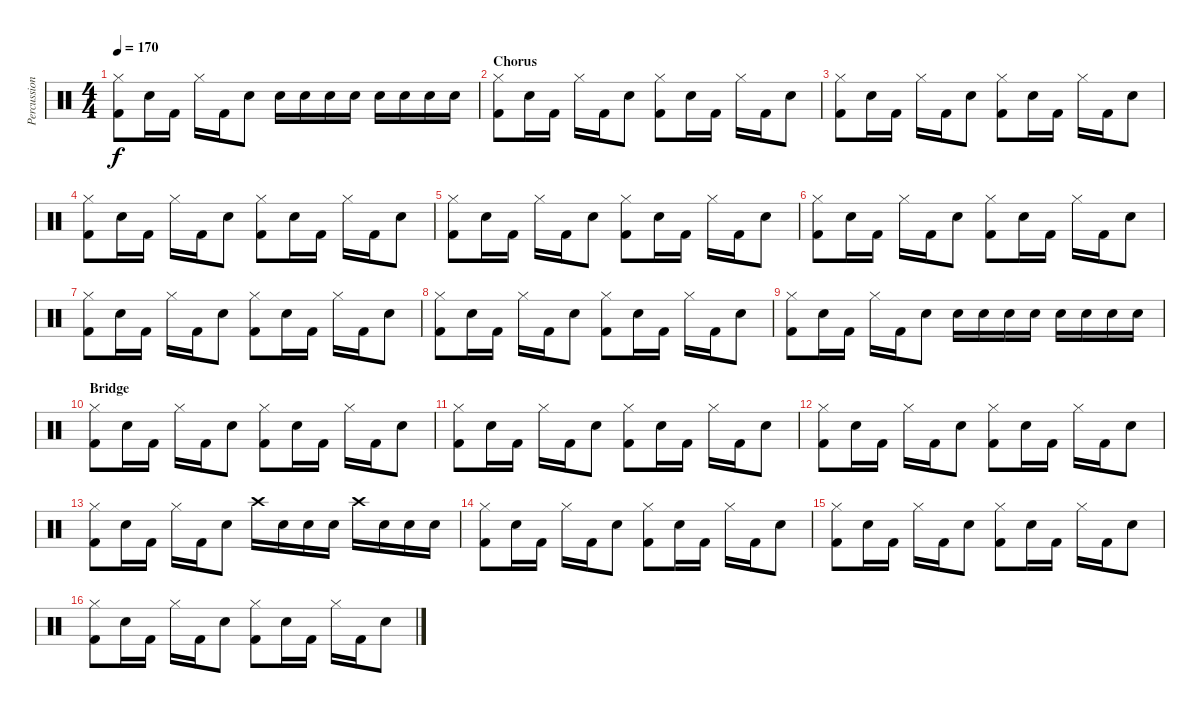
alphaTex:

\track ("Percussions" "Percussion") {instrument percussion}
\staff {score}
\articulation defaults
\ts (4 4)
\tempo 170
\clef neutral
\ks c
("Hi-Hat (closed)" "Kick (hit) 2").8{dy f} "Snare (hit) 2".16 "Kick (hit) 2".16 "Hi-Hat (closed)".16 "Kick (hit) 2".16 "Snare (hit) 2".8 "Snare (hit) 2".16 "Snare (hit) 2".16 "Snare (hit) 2".16 "Snare (hit) 2".16 "Snare (hit) 2".16 "Snare (hit) 2".16 "Snare (hit) 2".16 "Snare (hit) 2".16 |
\section ("" "Chorus")
("Hi-Hat (closed)" "Kick (hit) 2").8 "Snare (hit) 2".16 "Kick (hit) 2".16 "Hi-Hat (closed)".16 "Kick (hit) 2".16 "Snare (hit) 2".8 ("Hi-Hat (closed)" "Kick (hit) 2").8 "Snare (hit) 2".16 "Kick (hit) 2".16 "Hi-Hat (closed)".16 "Kick (hit) 2".16 "Snare (hit) 2".8 |
("Hi-Hat (closed)" "Kick (hit) 2").8 "Snare (hit) 2".16 "Kick (hit) 2".16 "Hi-Hat (closed)".16 "Kick (hit) 2".16 "Snare (hit) 2".8 ("Hi-Hat (closed)" "Kick (hit) 2").8 "Snare (hit) 2".16 "Kick (hit) 2".16 "Hi-Hat (closed)".16 "Kick (hit) 2".16 "Snare (hit) 2".8 |
("Hi-Hat (closed)" "Kick (hit) 2").8 "Snare (hit) 2".16 "Kick (hit) 2".16 "Hi-Hat (closed)".16 "Kick (hit) 2".16 "Snare (hit) 2".8 ("Hi-Hat (closed)" "Kick (hit) 2").8 "Snare (hit) 2".16 "Kick (hit) 2".16 "Hi-Hat (closed)".16 "Kick (hit) 2".16 "Snare (hit) 2".8 |
("Hi-Hat (closed)" "Kick (hit) 2").8 "Snare (hit) 2".16 "Kick (hit) 2".16 "Hi-Hat (closed)".16 "Kick (hit) 2".16 "Snare (hit) 2".8 ("Hi-Hat (closed)" "Kick (hit) 2").8 "Snare (hit) 2".16 "Kick (hit) 2".16 "Hi-Hat (closed)".16 "Kick (hit) 2".16 "Snare (hit) 2".8 |
("Hi-Hat (closed)" "Kick (hit) 2").8 "Snare (hit) 2".16 "Kick (hit) 2".16 "Hi-Hat (closed)".16 "Kick (hit) 2".16 "Snare (hit) 2".8 ("Hi-Hat (closed)" "Kick (hit) 2").8 "Snare (hit) 2".16 "Kick (hit) 2".16 "Hi-Hat (closed)".16 "Kick (hit) 2".16 "Snare (hit) 2".8 |
("Hi-Hat (closed)" "Kick (hit) 2").8 "Snare (hit) 2".16 "Kick (hit) 2".16 "Hi-Hat (closed)".16 "Kick (hit) 2".16 "Snare (hit) 2".8 ("Hi-Hat (closed)" "Kick (hit) 2").8 "Snare (hit) 2".16 "Kick (hit) 2".16 "Hi-Hat (closed)".16 "Kick (hit) 2".16 "Snare (hit) 2".8 |
("Hi-Hat (closed)" "Kick (hit) 2").8 "Snare (hit) 2".16 "Kick (hit) 2".16 "Hi-Hat (closed)".16 "Kick (hit) 2".16 "Snare (hit) 2".8 ("Hi-Hat (closed)" "Kick (hit) 2").8 "Snare (hit) 2".16 "Kick (hit) 2".16 "Hi-Hat (closed)".16 "Kick (hit) 2".16 "Snare (hit) 2".8 |
("Hi-Hat (closed)" "Kick (hit) 2").8 "Snare (hit) 2".16 "Kick (hit) 2".16 "Hi-Hat (closed)".16 "Kick (hit) 2".16 "Snare (hit) 2".8 "Snare (hit) 2".16 "Snare (hit) 2".16 "Snare (hit) 2".16 "Snare (hit) 2".16 "Snare (hit) 2".16 "Snare (hit) 2".16 "Snare (hit) 2".16 "Snare (hit) 2".16 |
\section ("" "Bridge")
("Hi-Hat (closed)" "Kick (hit) 2").8 "Snare (hit) 2".16 "Kick (hit) 2".16 "Hi-Hat (closed)".16 "Kick (hit) 2".16 "Snare (hit) 2".8 ("Hi-Hat (closed)" "Kick (hit) 2").8 "Snare (hit) 2".16 "Kick (hit) 2".16 "Hi-Hat (closed)".16 "Kick (hit) 2".16 "Snare (hit) 2".8 |
("Hi-Hat (closed)" "Kick (hit) 2").8 "Snare (hit) 2".16 "Kick (hit) 2".16 "Hi-Hat (closed)".16 "Kick (hit) 2".16 "Snare (hit) 2".8 ("Hi-Hat (closed)" "Kick (hit) 2").8 "Snare (hit) 2".16 "Kick (hit) 2".16 "Hi-Hat (closed)".16 "Kick (hit) 2".16 "Snare (hit) 2".8 |
("Hi-Hat (closed)" "Kick (hit) 2").8 "Snare (hit) 2".16 "Kick (hit) 2".16 "Hi-Hat (closed)".16 "Kick (hit) 2".16 "Snare (hit) 2".8 ("Hi-Hat (closed)" "Kick (hit) 2").8 "Snare (hit) 2".16 "Kick (hit) 2".16 "Hi-Hat (closed)".16 "Kick (hit) 2".16 "Snare (hit) 2".8 |
("Hi-Hat (closed)" "Kick (hit) 2").8 "Snare (hit) 2".16 "Kick (hit) 2".16 "Hi-Hat (closed)".16 "Kick (hit) 2".16 "Snare (hit) 2".8 "Crash high (hit)".16 "Snare (hit) 2".16 "Snare (hit) 2".16 "Snare (hit) 2".16 "Crash high (hit)".16 "Snare (hit) 2".16 "Snare (hit) 2".16 "Snare (hit) 2".16 |
("Hi-Hat (closed)" "Kick (hit) 2").8 "Snare (hit) 2".16 "Kick (hit) 2".16 "Hi-Hat (closed)".16 "Kick (hit) 2".16 "Snare (hit) 2".8 ("Hi-Hat (closed)" "Kick (hit) 2").8 "Snare (hit) 2".16 "Kick (hit) 2".16 "Hi-Hat (closed)".16 "Kick (hit) 2".16 "Snare (hit) 2".8 |
("Hi-Hat (closed)" "Kick (hit) 2").8 "Snare (hit) 2".16 "Kick (hit) 2".16 "Hi-Hat (closed)".16 "Kick (hit) 2".16 "Snare (hit) 2".8 ("Hi-Hat (closed)" "Kick (hit) 2").8 "Snare (hit) 2".16 "Kick (hit) 2".16 "Hi-Hat (closed)".16 "Kick (hit) 2".16 "Snare (hit) 2".8 |
("Hi-Hat (closed)" "Kick (hit) 2").8 "Snare (hit) 2".16 "Kick (hit) 2".16 "Hi-Hat (closed)".16 "Kick (hit) 2".16 "Snare (hit) 2".8 ("Hi-Hat (closed)" "Kick (hit) 2").8 "Snare (hit) 2".16 "Kick (hit) 2".16 "Hi-Hat (closed)".16 "Kick (hit) 2".16 "Snare (hit) 2".8
